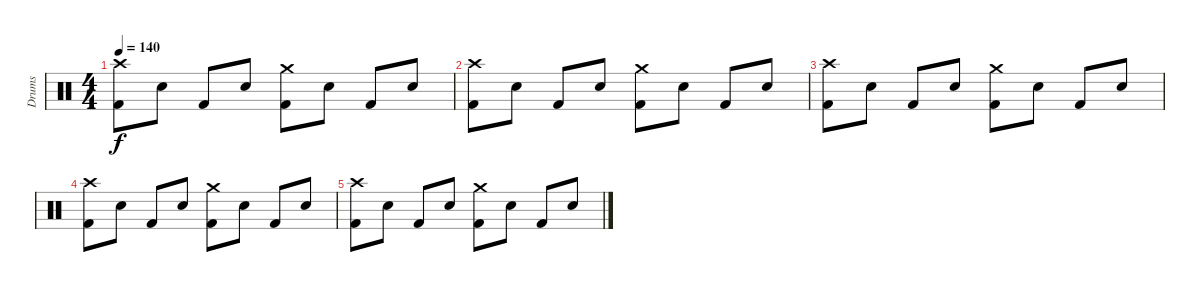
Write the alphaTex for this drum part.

\track ("Drums" "Drums") {instrument percussion}
\staff {score}
\articulation defaults
\ts (4 4)
\tempo 140
\clef neutral
\ks c
("Crash high (hit)" "Kick (hit) 2").8{dy f} "Snare (hit) 2".8 "Kick (hit) 2".8 "Snare (hit) 2".8 ("Crash medium (hit)" "Kick (hit) 2").8 "Snare (hit) 2".8 "Kick (hit) 2".8 "Snare (hit) 2".8 |
("Crash high (hit)" "Kick (hit) 2").8 "Snare (hit) 2".8 "Kick (hit) 2".8 "Snare (hit) 2".8 ("Crash medium (hit)" "Kick (hit) 2").8 "Snare (hit) 2".8 "Kick (hit) 2".8 "Snare (hit) 2".8 |
("Crash high (hit)" "Kick (hit) 2").8 "Snare (hit) 2".8 "Kick (hit) 2".8 "Snare (hit) 2".8 ("Crash medium (hit)" "Kick (hit) 2").8 "Snare (hit) 2".8 "Kick (hit) 2".8 "Snare (hit) 2".8 |
("Crash high (hit)" "Kick (hit) 2").8 "Snare (hit) 2".8 "Kick (hit) 2".8 "Snare (hit) 2".8 ("Crash medium (hit)" "Kick (hit) 2").8 "Snare (hit) 2".8 "Kick (hit) 2".8 "Snare (hit) 2".8 |
("Crash high (hit)" "Kick (hit) 2").8 "Snare (hit) 2".8 "Kick (hit) 2".8 "Snare (hit) 2".8 ("Crash medium (hit)" "Kick (hit) 2").8 "Snare (hit) 2".8 "Kick (hit) 2".8 "Snare (hit) 2".8
